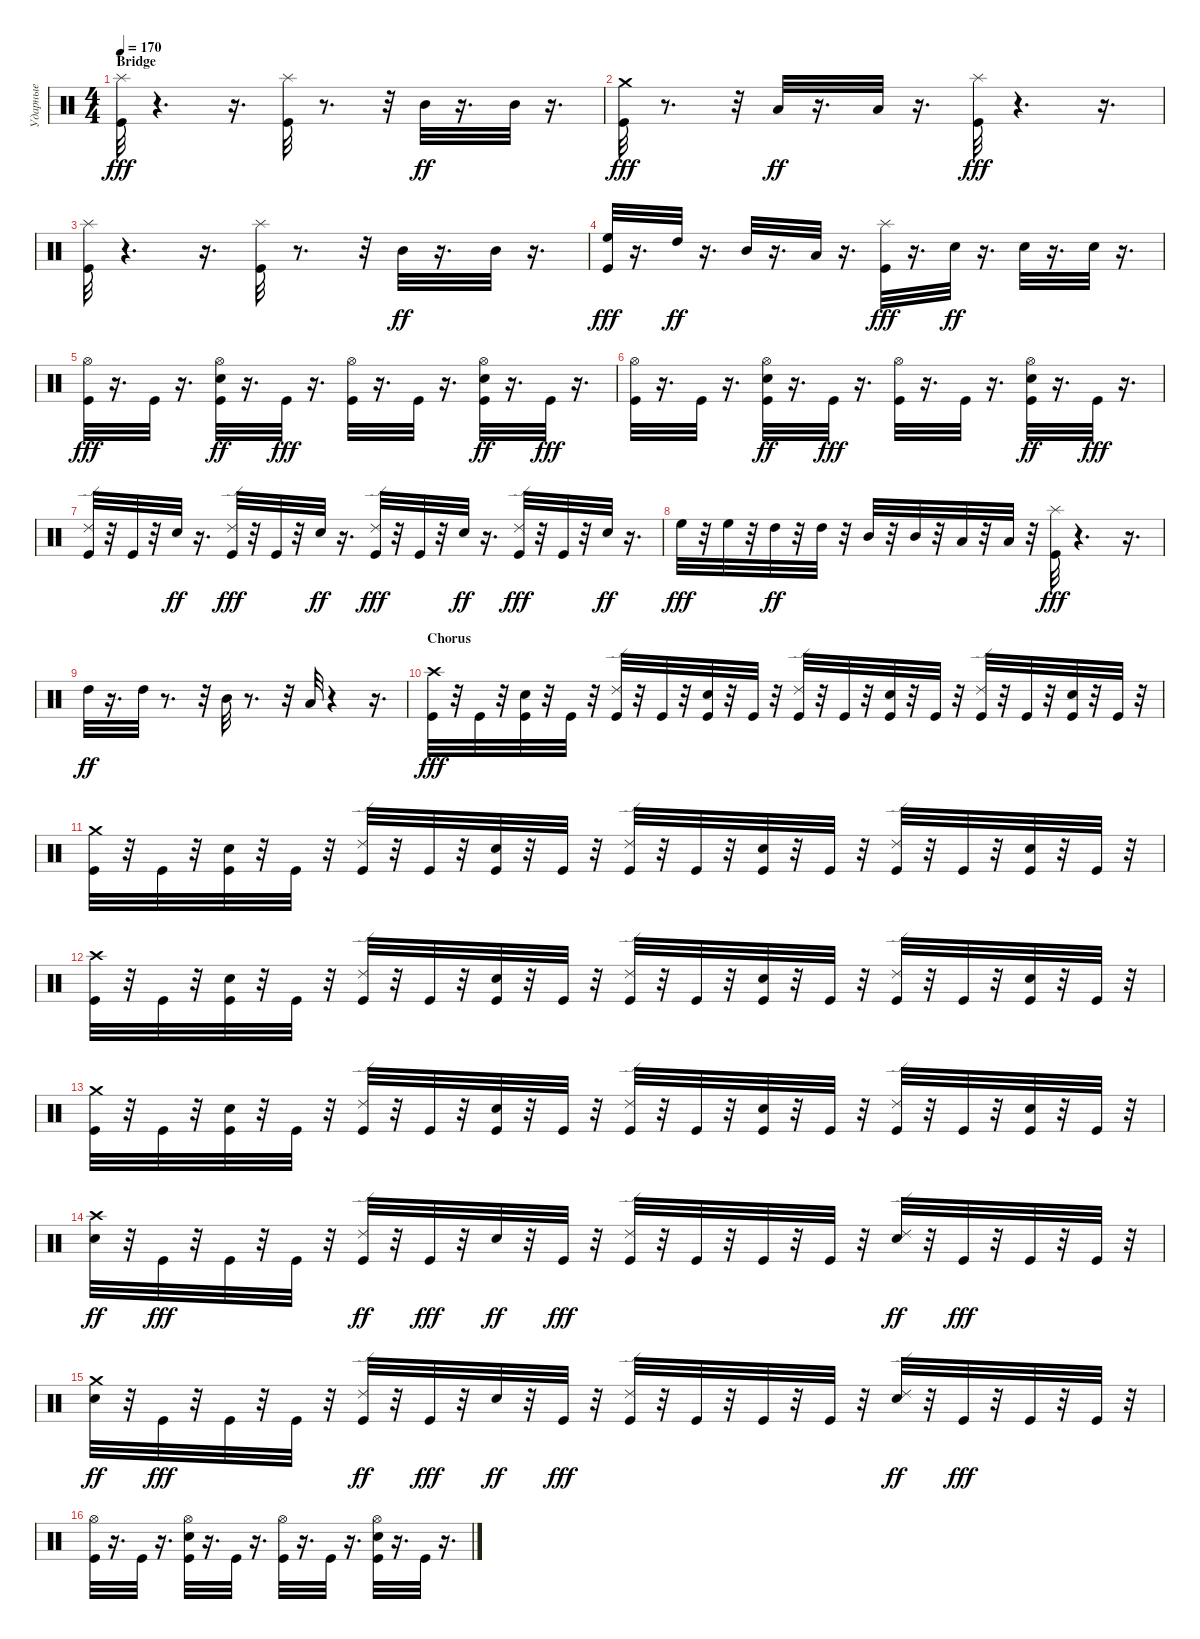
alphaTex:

\track ("Ударные" "Ударные") {instrument percussion}
\staff {score}
\articulation defaults
\ts (4 4)
\section ("" "Bridge")
\tempo 170
\clef neutral
\ks c
("Splash (hit)" "Kick (hit)").32{dy fff} r.4{d} r.16{d} ("Splash (hit)" "Kick (hit)").32 r.8{d} r.32 "Mid Tom (hit)".32{dy ff} r.16{d} "Mid Tom (hit)".32 r.16{d} |
("Crash medium (hit)" "Kick (hit)").32{dy fff} r.8{d} r.32 "Low Tom (hit)".32{dy ff} r.16{d} "Low Tom (hit)".32 r.16{d} ("Splash (hit)" "Kick (hit)").32{dy fff} r.4{d} r.16{d} |
("Splash (hit)" "Kick (hit)").32 r.4{d} r.16{d} ("Splash (hit)" "Kick (hit)").32 r.8{d} r.32 "Mid Tom (hit)".32{dy ff} r.16{d} "Mid Tom (hit)".32 r.16{d} |
("High Floor Tom (hit)" "Kick (hit)").32{dy fff} r.16{d} "High Tom (hit)".32{dy ff} r.16{d} "Mid Tom (hit)".32 r.16{d} "Low Tom (hit)".32 r.16{d} ("Splash (hit)" "Kick (hit)").32{dy fff} r.16{d} "Snare (hit) 2".32{dy ff} r.16{d} "Snare (hit) 2".32 r.16{d} "Snare (hit) 2".32 r.16{d} |
("Hi-Hat (open)" "Kick (hit)").32{dy fff} r.16{d} "Kick (hit)".32 r.16{d} ("Hi-Hat (open)" "Kick (hit)" "Snare (hit) 2").32{dy ff} r.16{d} "Kick (hit)".32{dy fff} r.16{d} ("Hi-Hat (open)" "Kick (hit)").32 r.16{d} "Kick (hit)".32 r.16{d} ("Hi-Hat (open)" "Kick (hit)" "Snare (hit) 2").32{dy ff} r.16{d} "Kick (hit)".32{dy fff} r.16{d} |
("Hi-Hat (open)" "Kick (hit)").32 r.16{d} "Kick (hit)".32 r.16{d} ("Hi-Hat (open)" "Kick (hit)" "Snare (hit) 2").32{dy ff} r.16{d} "Kick (hit)".32{dy fff} r.16{d} ("Hi-Hat (open)" "Kick (hit)").32 r.16{d} "Kick (hit)".32 r.16{d} ("Hi-Hat (open)" "Kick (hit)" "Snare (hit) 2").32{dy ff} r.16{d} "Kick (hit)".32{dy fff} r.16{d} |
("Ride (edge) 2" "Kick (hit)").32 r.32 "Kick (hit)".32 r.32 "Snare (hit) 2".32{dy ff} r.16{d} ("Ride (edge) 2" "Kick (hit)").32{dy fff} r.32 "Kick (hit)".32 r.32 "Snare (hit) 2".32{dy ff} r.16{d} ("Ride (edge) 2" "Kick (hit)").32{dy fff} r.32 "Kick (hit)".32 r.32 "Snare (hit) 2".32{dy ff} r.16{d} ("Ride (edge) 2" "Kick (hit)").32{dy fff} r.32 "Kick (hit)".32 r.32 "Snare (hit) 2".32{dy ff} r.16{d} |
"High Floor Tom (hit)".32{dy fff} r.32 "High Floor Tom (hit)".32 r.32 "High Tom (hit)".32{dy ff} r.32 "High Tom (hit)".32 r.32 "Mid Tom (hit)".32 r.32 "Mid Tom (hit)".32 r.32 "Low Tom (hit)".32 r.32 "Low Tom (hit)".32 r.32 ("Splash (hit)" "Kick (hit)").32{dy fff} r.4{d} r.16{d} |
"High Tom (hit)".32{dy ff} r.16{d} "High Tom (hit)".32 r.8{d} r.32 "Mid Tom (hit)".32 r.8{d} r.32 "Low Tom (hit)".32 r.4 r.16{d} |
\section ("" "Chorus")
("Crash high (hit)" "Kick (hit)").32{dy fff} r.32 "Kick (hit)".32 r.32 ("Snare (hit) 2" "Kick (hit)").32 r.32 "Kick (hit)".32 r.32 ("Ride (edge) 2" "Kick (hit)").32 r.32 "Kick (hit)".32 r.32 ("Snare (hit) 2" "Kick (hit)").32 r.32 "Kick (hit)".32 r.32 ("Ride (edge) 2" "Kick (hit)").32 r.32 "Kick (hit)".32 r.32 ("Snare (hit) 2" "Kick (hit)").32 r.32 "Kick (hit)".32 r.32 ("Ride (edge) 2" "Kick (hit)").32 r.32 "Kick (hit)".32 r.32 ("Snare (hit) 2" "Kick (hit)").32 r.32 "Kick (hit)".32 r.32 |
("Crash medium (hit)" "Kick (hit)").32 r.32 "Kick (hit)".32 r.32 ("Snare (hit) 2" "Kick (hit)").32 r.32 "Kick (hit)".32 r.32 ("Ride (edge) 2" "Kick (hit)").32 r.32 "Kick (hit)".32 r.32 ("Snare (hit) 2" "Kick (hit)").32 r.32 "Kick (hit)".32 r.32 ("Ride (edge) 2" "Kick (hit)").32 r.32 "Kick (hit)".32 r.32 ("Snare (hit) 2" "Kick (hit)").32 r.32 "Kick (hit)".32 r.32 ("Ride (edge) 2" "Kick (hit)").32 r.32 "Kick (hit)".32 r.32 ("Snare (hit) 2" "Kick (hit)").32 r.32 "Kick (hit)".32 r.32 |
("Crash high (hit)" "Kick (hit)").32 r.32 "Kick (hit)".32 r.32 ("Snare (hit) 2" "Kick (hit)").32 r.32 "Kick (hit)".32 r.32 ("Ride (edge) 2" "Kick (hit)").32 r.32 "Kick (hit)".32 r.32 ("Snare (hit) 2" "Kick (hit)").32 r.32 "Kick (hit)".32 r.32 ("Ride (edge) 2" "Kick (hit)").32 r.32 "Kick (hit)".32 r.32 ("Snare (hit) 2" "Kick (hit)").32 r.32 "Kick (hit)".32 r.32 ("Ride (edge) 2" "Kick (hit)").32 r.32 "Kick (hit)".32 r.32 ("Snare (hit) 2" "Kick (hit)").32 r.32 "Kick (hit)".32 r.32 |
("Crash medium (hit)" "Kick (hit)").32 r.32 "Kick (hit)".32 r.32 ("Snare (hit) 2" "Kick (hit)").32 r.32 "Kick (hit)".32 r.32 ("Ride (edge) 2" "Kick (hit)").32 r.32 "Kick (hit)".32 r.32 ("Snare (hit) 2" "Kick (hit)").32 r.32 "Kick (hit)".32 r.32 ("Ride (edge) 2" "Kick (hit)").32 r.32 "Kick (hit)".32 r.32 ("Snare (hit) 2" "Kick (hit)").32 r.32 "Kick (hit)".32 r.32 ("Ride (edge) 2" "Kick (hit)").32 r.32 "Kick (hit)".32 r.32 ("Snare (hit) 2" "Kick (hit)").32 r.32 "Kick (hit)".32 r.32 |
("Crash high (hit)" "Snare (hit) 2").32{dy ff} r.32 "Kick (hit)".32{dy fff} r.32 "Kick (hit)".32 r.32 "Kick (hit)".32 r.32 ("Kick (hit)" "Ride (edge) 2").32{dy ff} r.32 "Kick (hit)".32{dy fff} r.32 "Snare (hit) 2".32{dy ff} r.32 "Kick (hit)".32{dy fff} r.32 ("Ride (edge) 2" "Kick (hit)").32 r.32 "Kick (hit)".32 r.32 "Kick (hit)".32 r.32 "Kick (hit)".32 r.32 ("Ride (edge) 2" "Snare (hit) 2").32{dy ff} r.32 "Kick (hit)".32{dy fff} r.32 "Kick (hit)".32 r.32 "Kick (hit)".32 r.32 |
("Crash medium (hit)" "Snare (hit) 2").32{dy ff} r.32 "Kick (hit)".32{dy fff} r.32 "Kick (hit)".32 r.32 "Kick (hit)".32 r.32 ("Kick (hit)" "Ride (edge) 2").32{dy ff} r.32 "Kick (hit)".32{dy fff} r.32 "Snare (hit) 2".32{dy ff} r.32 "Kick (hit)".32{dy fff} r.32 ("Ride (edge) 2" "Kick (hit)").32 r.32 "Kick (hit)".32 r.32 "Kick (hit)".32 r.32 "Kick (hit)".32 r.32 ("Ride (edge) 2" "Snare (hit) 2").32{dy ff} r.32 "Kick (hit)".32{dy fff} r.32 "Kick (hit)".32 r.32 "Kick (hit)".32 r.32 |
("Hi-Hat (open)" "Kick (hit)").32 r.16{d} "Kick (hit)".32 r.16{d} ("Hi-Hat (open)" "Snare (hit) 2" "Kick (hit)").32 r.16{d} "Kick (hit)".32 r.16{d} ("Hi-Hat (open)" "Kick (hit)").32 r.16{d} "Kick (hit)".32 r.16{d} ("Snare (hit) 2" "Kick (hit)" "Hi-Hat (open)").32 r.16{d} "Kick (hit)".32 r.16{d}
